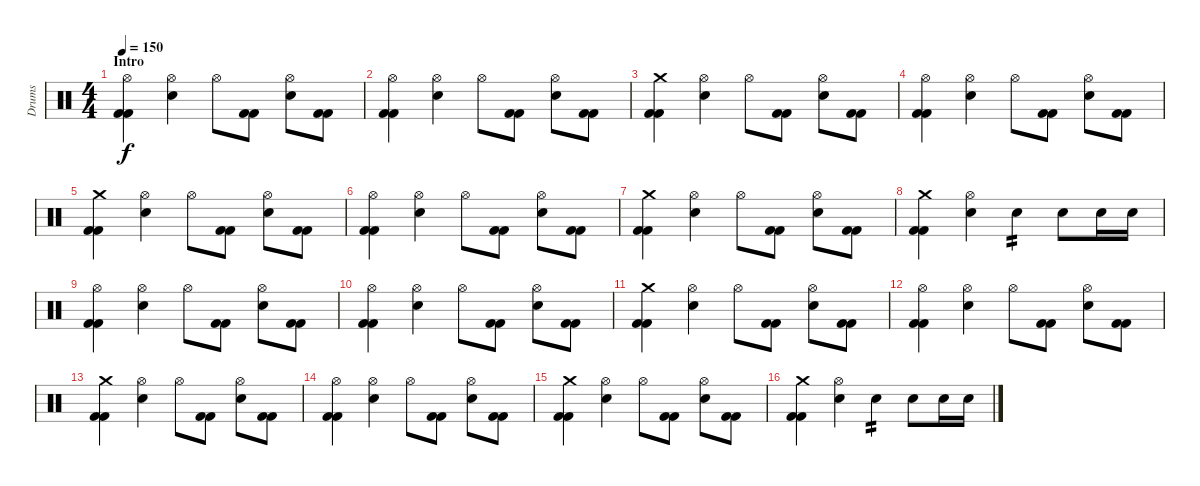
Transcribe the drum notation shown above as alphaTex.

\track ("Drums" "Drums") {instrument percussion}
\staff {score}
\articulation defaults
\ts (4 4)
\section ("" "Intro")
\tempo 150
\clef neutral
\ks c
("Hi-Hat (open)" "Kick (hit) 2" "Kick (hit) 2").4{dy f} ("Electric Snare (hit)" "Hi-Hat (open)").4 "Hi-Hat (open)".8 ("Kick (hit) 2" "Kick (hit) 2").8 ("Electric Snare (hit)" "Hi-Hat (open)").8 ("Kick (hit) 2" "Kick (hit) 2").8 |
("Hi-Hat (open)" "Kick (hit) 2" "Kick (hit) 2").4 ("Electric Snare (hit)" "Hi-Hat (open)").4 "Hi-Hat (open)".8 ("Kick (hit) 2" "Kick (hit) 2").8 ("Electric Snare (hit)" "Hi-Hat (open)").8 ("Kick (hit) 2" "Kick (hit) 2").8 |
("Crash medium (hit)" "Kick (hit) 2" "Kick (hit) 2").4 ("Electric Snare (hit)" "Hi-Hat (open)").4 "Hi-Hat (open)".8 ("Kick (hit) 2" "Kick (hit) 2").8 ("Electric Snare (hit)" "Hi-Hat (open)").8 ("Kick (hit) 2" "Kick (hit) 2").8 |
("Hi-Hat (open)" "Kick (hit) 2" "Kick (hit) 2").4 ("Electric Snare (hit)" "Hi-Hat (open)").4 "Hi-Hat (open)".8 ("Kick (hit) 2" "Kick (hit) 2").8 ("Electric Snare (hit)" "Hi-Hat (open)").8 ("Kick (hit) 2" "Kick (hit) 2").8 |
("Crash medium (hit)" "Kick (hit) 2" "Kick (hit) 2").4 ("Electric Snare (hit)" "Hi-Hat (open)").4 "Hi-Hat (open)".8 ("Kick (hit) 2" "Kick (hit) 2").8 ("Electric Snare (hit)" "Hi-Hat (open)").8 ("Kick (hit) 2" "Kick (hit) 2").8 |
("Hi-Hat (open)" "Kick (hit) 2" "Kick (hit) 2").4 ("Electric Snare (hit)" "Hi-Hat (open)").4 "Hi-Hat (open)".8 ("Kick (hit) 2" "Kick (hit) 2").8 ("Electric Snare (hit)" "Hi-Hat (open)").8 ("Kick (hit) 2" "Kick (hit) 2").8 |
("Crash medium (hit)" "Kick (hit) 2" "Kick (hit) 2").4 ("Electric Snare (hit)" "Hi-Hat (open)").4 "Hi-Hat (open)".8 ("Kick (hit) 2" "Kick (hit) 2").8 ("Electric Snare (hit)" "Hi-Hat (open)").8 ("Kick (hit) 2" "Kick (hit) 2").8 |
("Crash medium (hit)" "Kick (hit) 2" "Kick (hit) 2").4 ("Electric Snare (hit)" "Hi-Hat (open)").4 "Electric Snare (hit)".4{tp 2} "Electric Snare (hit)".8 "Electric Snare (hit)".16 "Electric Snare (hit)".16 |
("Hi-Hat (open)" "Kick (hit) 2" "Kick (hit) 2").4 ("Electric Snare (hit)" "Hi-Hat (open)").4 "Hi-Hat (open)".8 ("Kick (hit) 2" "Kick (hit) 2").8 ("Electric Snare (hit)" "Hi-Hat (open)").8 ("Kick (hit) 2" "Kick (hit) 2").8 |
("Hi-Hat (open)" "Kick (hit) 2" "Kick (hit) 2").4 ("Electric Snare (hit)" "Hi-Hat (open)").4 "Hi-Hat (open)".8 ("Kick (hit) 2" "Kick (hit) 2").8 ("Electric Snare (hit)" "Hi-Hat (open)").8 ("Kick (hit) 2" "Kick (hit) 2").8 |
("Crash medium (hit)" "Kick (hit) 2" "Kick (hit) 2").4 ("Electric Snare (hit)" "Hi-Hat (open)").4 "Hi-Hat (open)".8 ("Kick (hit) 2" "Kick (hit) 2").8 ("Electric Snare (hit)" "Hi-Hat (open)").8 ("Kick (hit) 2" "Kick (hit) 2").8 |
("Hi-Hat (open)" "Kick (hit) 2" "Kick (hit) 2").4 ("Electric Snare (hit)" "Hi-Hat (open)").4 "Hi-Hat (open)".8 ("Kick (hit) 2" "Kick (hit) 2").8 ("Electric Snare (hit)" "Hi-Hat (open)").8 ("Kick (hit) 2" "Kick (hit) 2").8 |
("Crash medium (hit)" "Kick (hit) 2" "Kick (hit) 2").4 ("Electric Snare (hit)" "Hi-Hat (open)").4 "Hi-Hat (open)".8 ("Kick (hit) 2" "Kick (hit) 2").8 ("Electric Snare (hit)" "Hi-Hat (open)").8 ("Kick (hit) 2" "Kick (hit) 2").8 |
("Hi-Hat (open)" "Kick (hit) 2" "Kick (hit) 2").4 ("Electric Snare (hit)" "Hi-Hat (open)").4 "Hi-Hat (open)".8 ("Kick (hit) 2" "Kick (hit) 2").8 ("Electric Snare (hit)" "Hi-Hat (open)").8 ("Kick (hit) 2" "Kick (hit) 2").8 |
("Crash medium (hit)" "Kick (hit) 2" "Kick (hit) 2").4 ("Electric Snare (hit)" "Hi-Hat (open)").4 "Hi-Hat (open)".8 ("Kick (hit) 2" "Kick (hit) 2").8 ("Electric Snare (hit)" "Hi-Hat (open)").8 ("Kick (hit) 2" "Kick (hit) 2").8 |
("Crash medium (hit)" "Kick (hit) 2" "Kick (hit) 2").4 ("Electric Snare (hit)" "Hi-Hat (open)").4 "Electric Snare (hit)".4{tp 2} "Electric Snare (hit)".8 "Electric Snare (hit)".16 "Electric Snare (hit)".16
